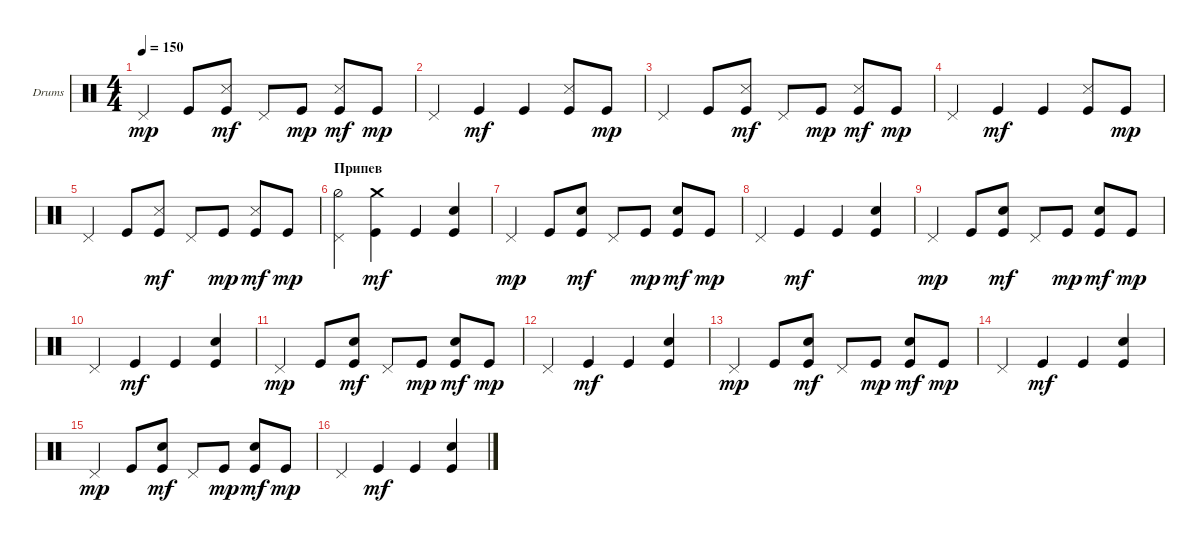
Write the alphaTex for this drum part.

\defaultSystemsLayout 4
\bracketExtendMode groupsimilarinstruments
\firstSystemTrackNameOrientation horizontal
\otherSystemsTrackNameOrientation horizontal
\track ("Е. Кулаков" "Drums") {instrument percussion}
\staff {score}
\articulation defaults
\ts (4 4)
\tempo 150
\clef neutral
\ks c "Pedal Hi-Hat (hit)".4{dy mp} "Kick (hit)".8
("Kick (hit)" "Snare (side stick) 3").8{dy mf} "Pedal Hi-Hat (hit)".8 "Kick (hit)".8{dy mp} ("Kick (hit)" "Snare (side stick) 3").8{dy mf} "Kick (hit)".8{dy mp} |
"Pedal Hi-Hat (hit)".4 "Kick (hit)".4{dy mf} "Kick (hit)".4 ("Kick (hit)" "Snare (side stick) 3").8 "Kick (hit)".8{dy mp} |
"Pedal Hi-Hat (hit)".4 "Kick (hit)".8 ("Kick (hit)" "Snare (side stick) 3").8{dy mf} "Pedal Hi-Hat (hit)".8 "Kick (hit)".8{dy mp} ("Kick (hit)" "Snare (side stick) 3").8{dy mf} "Kick (hit)".8{dy mp} |
"Pedal Hi-Hat (hit)".4 "Kick (hit)".4{dy mf} "Kick (hit)".4 ("Kick (hit)" "Snare (side stick) 3").8 "Kick (hit)".8{dy mp} |
"Pedal Hi-Hat (hit)".4 "Kick (hit)".8 ("Kick (hit)" "Snare (side stick) 3").8{dy mf} "Pedal Hi-Hat (hit)".8 "Kick (hit)".8{dy mp} ("Kick (hit)" "Snare (side stick) 3").8{dy mf} "Kick (hit)".8{dy mp} |
\section ("" "Припев")
("Pedal Hi-Hat (hit)" "Hi-Hat (half)").4 ("Kick (hit)" "Crash medium (hit)").4{dy mf} "Kick (hit)".4 ("Snare (hit) 2" "Kick (hit)").4 |
"Pedal Hi-Hat (hit)".4{dy mp} "Kick (hit)".8 ("Kick (hit)" "Snare (hit) 2").8{dy mf} "Pedal Hi-Hat (hit)".8 "Kick (hit)".8{dy mp} ("Kick (hit)" "Snare (hit) 2").8{dy mf} "Kick (hit)".8{dy mp} |
"Pedal Hi-Hat (hit)".4 "Kick (hit)".4{dy mf} "Kick (hit)".4 ("Snare (hit) 2" "Kick (hit)").4 |
"Pedal Hi-Hat (hit)".4{dy mp} "Kick (hit)".8 ("Kick (hit)" "Snare (hit) 2").8{dy mf} "Pedal Hi-Hat (hit)".8 "Kick (hit)".8{dy mp} ("Kick (hit)" "Snare (hit) 2").8{dy mf} "Kick (hit)".8{dy mp} |
"Pedal Hi-Hat (hit)".4 "Kick (hit)".4{dy mf} "Kick (hit)".4 ("Snare (hit) 2" "Kick (hit)").4 |
"Pedal Hi-Hat (hit)".4{dy mp} "Kick (hit)".8 ("Kick (hit)" "Snare (hit) 2").8{dy mf} "Pedal Hi-Hat (hit)".8 "Kick (hit)".8{dy mp} ("Kick (hit)" "Snare (hit) 2").8{dy mf} "Kick (hit)".8{dy mp} |
"Pedal Hi-Hat (hit)".4 "Kick (hit)".4{dy mf} "Kick (hit)".4 ("Snare (hit) 2" "Kick (hit)").4 |
"Pedal Hi-Hat (hit)".4{dy mp} "Kick (hit)".8 ("Kick (hit)" "Snare (hit) 2").8{dy mf} "Pedal Hi-Hat (hit)".8 "Kick (hit)".8{dy mp} ("Kick (hit)" "Snare (hit) 2").8{dy mf} "Kick (hit)".8{dy mp} |
"Pedal Hi-Hat (hit)".4 "Kick (hit)".4{dy mf} "Kick (hit)".4 ("Snare (hit) 2" "Kick (hit)").4 |
"Pedal Hi-Hat (hit)".4{dy mp} "Kick (hit)".8 ("Kick (hit)" "Snare (hit) 2").8{dy mf} "Pedal Hi-Hat (hit)".8 "Kick (hit)".8{dy mp} ("Kick (hit)" "Snare (hit) 2").8{dy mf} "Kick (hit)".8{dy mp} |
"Pedal Hi-Hat (hit)".4 "Kick (hit)".4{dy mf} "Kick (hit)".4 ("Snare (hit) 2" "Kick (hit)").4
